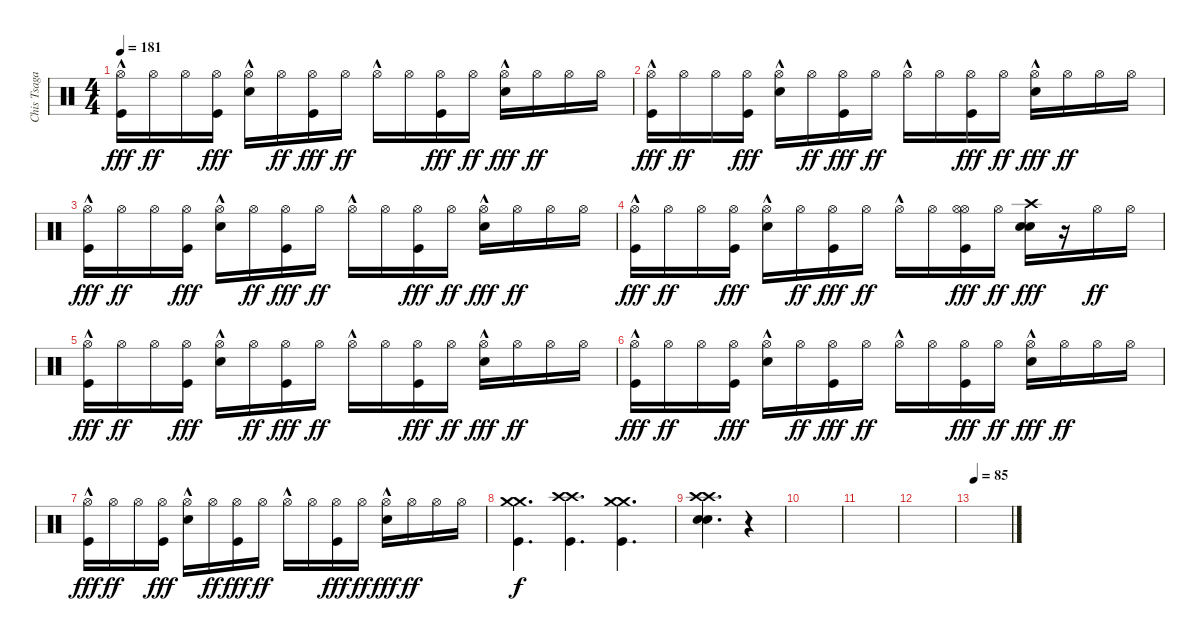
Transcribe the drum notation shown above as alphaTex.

\track ("Chis Tsagakis" "Chis Tsaga") {instrument percussion}
\staff {score}
\articulation defaults
\ts (4 4)
\tempo 181
\clef neutral
\ks c
("Hi-Hat (open)"{hac} "Kick (hit)").16{dy fff volume 13} "Hi-Hat (open)".16{dy ff} "Hi-Hat (open)".16 ("Hi-Hat (open)" "Kick (hit)").16{dy fff} ("Hi-Hat (open)"{hac} "Electric Snare (hit)").16 "Hi-Hat (open)".16{dy ff} ("Hi-Hat (open)" "Kick (hit)").16{dy fff} "Hi-Hat (open)".16{dy ff} "Hi-Hat (open)"{hac}.16 "Hi-Hat (open)".16 ("Hi-Hat (open)" "Kick (hit)").16{dy fff} "Hi-Hat (open)".16{dy ff} ("Hi-Hat (open)"{hac} "Electric Snare (hit)").16{dy fff} "Hi-Hat (open)".16{dy ff} "Hi-Hat (open)".16 "Hi-Hat (open)".16 |
("Hi-Hat (open)"{hac} "Kick (hit)").16{dy fff} "Hi-Hat (open)".16{dy ff} "Hi-Hat (open)".16 ("Hi-Hat (open)" "Kick (hit)").16{dy fff} ("Hi-Hat (open)"{hac} "Electric Snare (hit)").16 "Hi-Hat (open)".16{dy ff} ("Hi-Hat (open)" "Kick (hit)").16{dy fff} "Hi-Hat (open)".16{dy ff} "Hi-Hat (open)"{hac}.16 "Hi-Hat (open)".16 ("Hi-Hat (open)" "Kick (hit)").16{dy fff} "Hi-Hat (open)".16{dy ff} ("Hi-Hat (open)"{hac} "Electric Snare (hit)").16{dy fff} "Hi-Hat (open)".16{dy ff} "Hi-Hat (open)".16 "Hi-Hat (open)".16 |
("Hi-Hat (open)"{hac} "Kick (hit)").16{dy fff volume 13} "Hi-Hat (open)".16{dy ff} "Hi-Hat (open)".16 ("Hi-Hat (open)" "Kick (hit)").16{dy fff} ("Hi-Hat (open)"{hac} "Electric Snare (hit)").16 "Hi-Hat (open)".16{dy ff} ("Hi-Hat (open)" "Kick (hit)").16{dy fff} "Hi-Hat (open)".16{dy ff} "Hi-Hat (open)"{hac}.16 "Hi-Hat (open)".16 ("Hi-Hat (open)" "Kick (hit)").16{dy fff} "Hi-Hat (open)".16{dy ff} ("Hi-Hat (open)"{hac} "Electric Snare (hit)").16{dy fff} "Hi-Hat (open)".16{dy ff} "Hi-Hat (open)".16 "Hi-Hat (open)".16 |
("Hi-Hat (open)"{hac} "Kick (hit)").16{dy fff} "Hi-Hat (open)".16{dy ff} "Hi-Hat (open)".16 ("Hi-Hat (open)" "Kick (hit)").16{dy fff} ("Hi-Hat (open)"{hac} "Electric Snare (hit)").16 "Hi-Hat (open)".16{dy ff} ("Hi-Hat (open)" "Kick (hit)").16{dy fff} "Hi-Hat (open)".16{dy ff} "Hi-Hat (open)"{hac}.16 "Hi-Hat (open)".16 ("Hi-Hat (open)" "Hi-Hat (open)" "Kick (hit)").16{dy fff} "Hi-Hat (open)".16{dy ff} ("Crash high (hit)" "Electric Snare (hit)" "Electric Snare (hit)").16{dy fff} r.16 "Hi-Hat (open)".16{dy ff} "Hi-Hat (open)".16 |
("Hi-Hat (open)"{hac} "Kick (hit)").16{dy fff} "Hi-Hat (open)".16{dy ff} "Hi-Hat (open)".16 ("Hi-Hat (open)" "Kick (hit)").16{dy fff} ("Hi-Hat (open)"{hac} "Electric Snare (hit)").16 "Hi-Hat (open)".16{dy ff} ("Hi-Hat (open)" "Kick (hit)").16{dy fff} "Hi-Hat (open)".16{dy ff} "Hi-Hat (open)"{hac}.16 "Hi-Hat (open)".16 ("Hi-Hat (open)" "Kick (hit)").16{dy fff} "Hi-Hat (open)".16{dy ff} ("Hi-Hat (open)"{hac} "Electric Snare (hit)").16{dy fff} "Hi-Hat (open)".16{dy ff} "Hi-Hat (open)".16 "Hi-Hat (open)".16 |
("Hi-Hat (open)"{hac} "Kick (hit)").16{dy fff} "Hi-Hat (open)".16{dy ff} "Hi-Hat (open)".16 ("Hi-Hat (open)" "Kick (hit)").16{dy fff} ("Hi-Hat (open)"{hac} "Electric Snare (hit)").16 "Hi-Hat (open)".16{dy ff} ("Hi-Hat (open)" "Kick (hit)").16{dy fff} "Hi-Hat (open)".16{dy ff} "Hi-Hat (open)"{hac}.16 "Hi-Hat (open)".16 ("Hi-Hat (open)" "Kick (hit)").16{dy fff} "Hi-Hat (open)".16{dy ff} ("Hi-Hat (open)"{hac} "Electric Snare (hit)").16{dy fff} "Hi-Hat (open)".16{dy ff} "Hi-Hat (open)".16 "Hi-Hat (open)".16 |
("Hi-Hat (open)"{hac} "Kick (hit)").16{dy fff} "Hi-Hat (open)".16{dy ff} "Hi-Hat (open)".16 ("Hi-Hat (open)" "Kick (hit)").16{dy fff} ("Hi-Hat (open)"{hac} "Electric Snare (hit)").16 "Hi-Hat (open)".16{dy ff} ("Hi-Hat (open)" "Kick (hit)").16{dy fff} "Hi-Hat (open)".16{dy ff} "Hi-Hat (open)"{hac}.16 "Hi-Hat (open)".16 ("Hi-Hat (open)" "Kick (hit)").16{dy fff} "Hi-Hat (open)".16{dy ff} ("Hi-Hat (open)"{hac} "Electric Snare (hit)").16{dy fff} "Hi-Hat (open)".16{dy ff} "Hi-Hat (open)".16 "Hi-Hat (open)".16 |
("Crash medium (hit)" "Crash medium (hit)" "Kick (hit)").4{d dy f} ("Crash high (hit)" "Crash high (hit)" "Kick (hit)").4{d} ("Crash medium (hit)" "Crash medium (hit)" "Kick (hit)").4{d} |
("Crash high (hit)" "Crash high (hit)" "Snare (hit)" "Snare (hit)").4{d} r.4 |
|
|
|
\tempo 85
